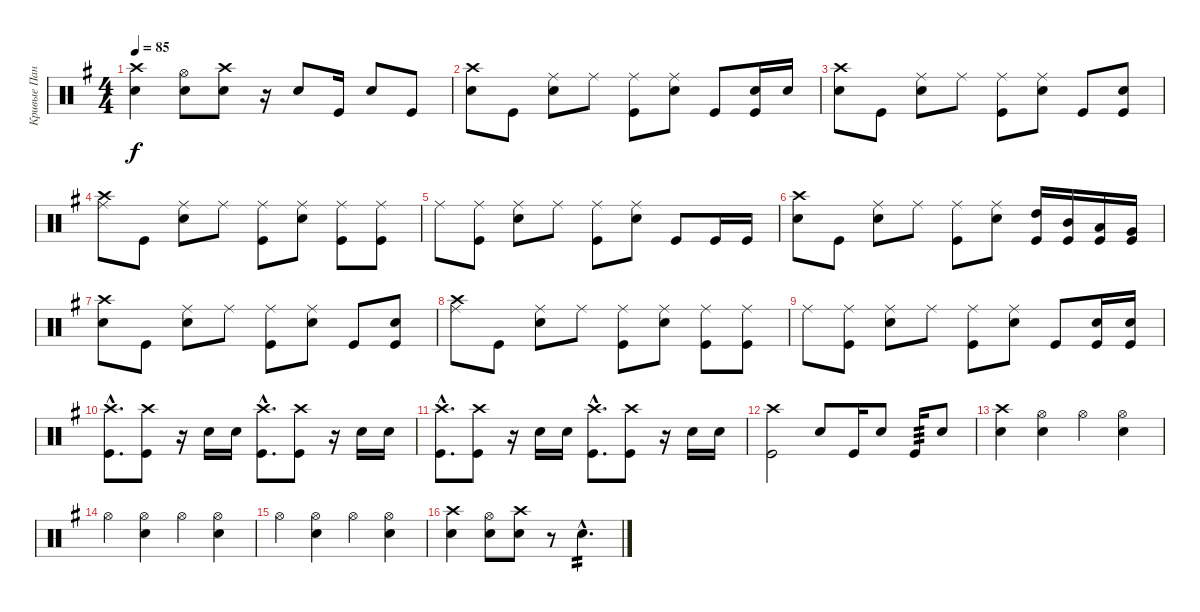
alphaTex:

\track ("Кривые Панковские Ударки (CPU)" "Кривые Пан") {instrument percussion}
\staff {score}
\articulation defaults
\ts (4 4)
\tempo 85
\clef neutral
\ks eminor
("Snare (hit) 2" "Crash high (hit)").4{dy f} ("Hi-Hat (open)" "Snare (hit) 2").8 ("Snare (hit) 2" "Crash high (hit)").8 r.16 "Snare (hit) 2".8 "Kick (hit)".16 "Snare (hit) 2".8 "Kick (hit)".8 |
("Crash high (hit)" "Snare (hit) 2").8 "Kick (hit)".8 ("Ride (middle)" "Snare (hit) 2").8 "Ride (middle)".8 ("Ride (middle)" "Kick (hit)").8 ("Ride (middle)" "Snare (hit) 2").8 "Kick (hit)".8 ("Snare (hit) 2" "Kick (hit)").16 "Snare (hit) 2".16 |
("Crash high (hit)" "Snare (hit) 2").8 "Kick (hit)".8 ("Ride (middle)" "Snare (hit) 2").8 "Ride (middle)".8 ("Ride (middle)" "Kick (hit)").8 ("Ride (middle)" "Snare (hit) 2").8 "Kick (hit)".8 ("Snare (hit) 2" "Kick (hit)").8 |
("Ride (middle)" "Crash high (hit)").8 "Kick (hit)".8 ("Ride (middle)" "Snare (hit) 2").8 "Ride (middle)".8 ("Ride (middle)" "Kick (hit)").8 ("Ride (middle)" "Snare (hit) 2").8 ("Ride (middle)" "Kick (hit)").8 ("Ride (middle)" "Kick (hit)").8 |
"Ride (middle)".8 ("Ride (middle)" "Kick (hit)").8 ("Ride (middle)" "Snare (hit) 2").8 "Ride (middle)".8 ("Ride (middle)" "Kick (hit)").8 ("Ride (middle)" "Snare (hit) 2").8 "Kick (hit)".8 "Kick (hit)".16 "Kick (hit)".16 |
("Crash high (hit)" "Snare (hit) 2").8 "Kick (hit)".8 ("Ride (middle)" "Snare (hit) 2").8 "Ride (middle)".8 ("Ride (middle)" "Kick (hit)").8 ("Ride (middle)" "Snare (hit) 2").8 ("High Tom (hit)" "Kick (hit)").16 ("Mid Tom (hit)" "Kick (hit)").16 ("Low Tom (hit)" "Kick (hit)").16 ("Very Low Tom (hit)" "Kick (hit)").16 |
("Crash high (hit)" "Snare (hit) 2").8 "Kick (hit)".8 ("Ride (middle)" "Snare (hit) 2").8 "Ride (middle)".8 ("Ride (middle)" "Kick (hit)").8 ("Ride (middle)" "Snare (hit) 2").8 "Kick (hit)".8 ("Snare (hit) 2" "Kick (hit)").8 |
("Ride (middle)" "Crash high (hit)").8 "Kick (hit)".8 ("Ride (middle)" "Snare (hit) 2").8 "Ride (middle)".8 ("Ride (middle)" "Kick (hit)").8 ("Ride (middle)" "Snare (hit) 2").8 ("Ride (middle)" "Kick (hit)").8 ("Ride (middle)" "Kick (hit)").8 |
"Ride (middle)".8 ("Ride (middle)" "Kick (hit)").8 ("Ride (middle)" "Snare (hit) 2").8 "Ride (middle)".8 ("Ride (middle)" "Kick (hit)").8 ("Ride (middle)" "Snare (hit) 2").8 "Kick (hit)".8 ("Snare (hit) 2" "Kick (hit)").16 ("Snare (hit) 2" "Kick (hit)").16 |
("Crash high (hit)"{hac} "Kick (hit)"{hac}).8{d} ("Crash high (hit)" "Kick (hit)").8 r.16 "Snare (hit) 2".16 "Snare (hit) 2".16 ("Crash high (hit)"{hac} "Kick (hit)"{hac}).8{d} ("Crash high (hit)" "Kick (hit)").8 r.16 "Snare (hit) 2".16 "Snare (hit) 2".16 |
("Crash high (hit)"{hac} "Kick (hit)"{hac}).8{d} ("Crash high (hit)" "Kick (hit)").8 r.16 "Snare (hit) 2".16 "Snare (hit) 2".16 ("Crash high (hit)"{hac} "Kick (hit)"{hac}).8{d} ("Crash high (hit)" "Kick (hit)").8 r.16 "Snare (hit) 2".16 "Snare (hit) 2".16 |
("Crash high (hit)" "Kick (hit)").2 "Snare (hit) 2".8 "Kick (hit)".16 "Snare (hit) 2".8 "Kick (hit)".16{tp 3} "Snare (hit) 2".8 |
("Snare (hit) 2" "Crash high (hit)").4 ("Hi-Hat (open)" "Snare (hit) 2").4 "Hi-Hat (open)".4 ("Hi-Hat (open)" "Snare (hit) 2").4 |
"Hi-Hat (open)".4 ("Hi-Hat (open)" "Snare (hit) 2").4 "Hi-Hat (open)".4 ("Hi-Hat (open)" "Snare (hit) 2").4 |
"Hi-Hat (open)".4 ("Hi-Hat (open)" "Snare (hit) 2").4 "Hi-Hat (open)".4 ("Hi-Hat (open)" "Snare (hit) 2").4 |
("Snare (hit) 2" "Crash high (hit)").4 ("Hi-Hat (open)" "Snare (hit) 2").8 ("Snare (hit) 2" "Crash high (hit)").8 r.8 "Snare (hit) 2"{hac}.4{d tp 2}
